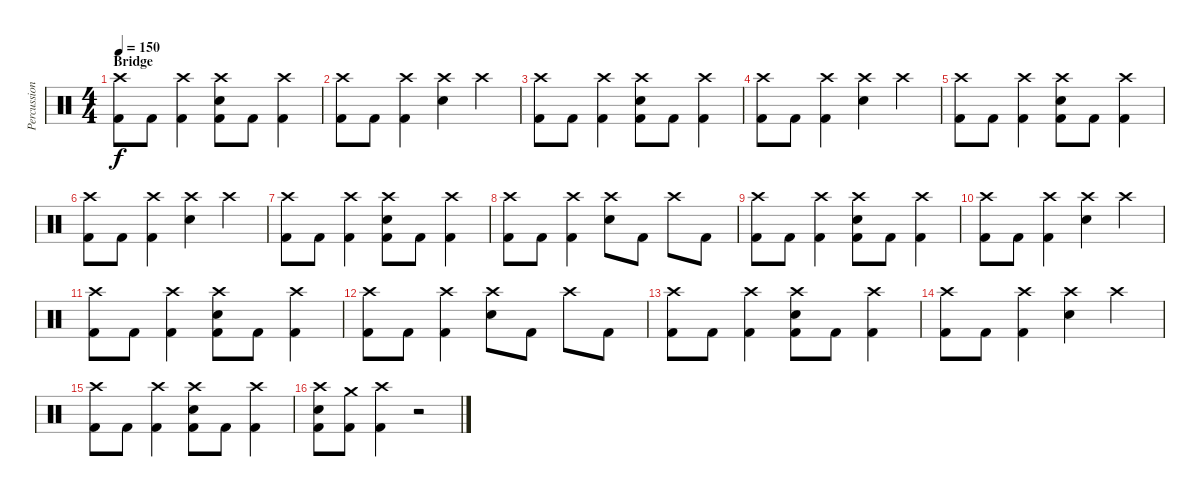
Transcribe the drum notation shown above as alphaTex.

\track ("Percussion" "Percussion") {instrument percussion}
\staff {score}
\articulation defaults
\ts (4 4)
\section ("" "Bridge")
\tempo 150
\clef neutral
\ks c
("Crash high (hit)" "Kick (hit) 2").8{dy f} "Kick (hit) 2".8 ("Crash high (hit)" "Kick (hit) 2").4 ("Crash high (hit)" "Electric Snare (hit)" "Kick (hit) 2").8 "Kick (hit) 2".8 ("Crash high (hit)" "Kick (hit) 2").4 |
("Crash high (hit)" "Kick (hit) 2").8 "Kick (hit) 2".8 ("Crash high (hit)" "Kick (hit) 2").4 ("Crash high (hit)" "Electric Snare (hit)").4 "Crash high (hit)".4 |
("Crash high (hit)" "Kick (hit) 2").8 "Kick (hit) 2".8 ("Crash high (hit)" "Kick (hit) 2").4 ("Crash high (hit)" "Electric Snare (hit)" "Kick (hit) 2").8 "Kick (hit) 2".8 ("Crash high (hit)" "Kick (hit) 2").4 |
("Crash high (hit)" "Kick (hit) 2").8 "Kick (hit) 2".8 ("Crash high (hit)" "Kick (hit) 2").4 ("Crash high (hit)" "Electric Snare (hit)").4 "Crash high (hit)".4 |
("Crash high (hit)" "Kick (hit) 2").8 "Kick (hit) 2".8 ("Crash high (hit)" "Kick (hit) 2").4 ("Crash high (hit)" "Electric Snare (hit)" "Kick (hit) 2").8 "Kick (hit) 2".8 ("Crash high (hit)" "Kick (hit) 2").4 |
("Crash high (hit)" "Kick (hit) 2").8 "Kick (hit) 2".8 ("Crash high (hit)" "Kick (hit) 2").4 ("Crash high (hit)" "Electric Snare (hit)").4 "Crash high (hit)".4 |
("Crash high (hit)" "Kick (hit) 2").8 "Kick (hit) 2".8 ("Crash high (hit)" "Kick (hit) 2").4 ("Crash high (hit)" "Electric Snare (hit)" "Kick (hit) 2").8 "Kick (hit) 2".8 ("Crash high (hit)" "Kick (hit) 2").4 |
("Crash high (hit)" "Kick (hit) 2").8 "Kick (hit) 2".8 ("Crash high (hit)" "Kick (hit) 2").4 ("Crash high (hit)" "Electric Snare (hit)").8 "Kick (hit) 2".8 "Crash high (hit)".8 "Kick (hit) 2".8 |
("Crash high (hit)" "Kick (hit) 2").8 "Kick (hit) 2".8 ("Crash high (hit)" "Kick (hit) 2").4 ("Crash high (hit)" "Electric Snare (hit)" "Kick (hit) 2").8 "Kick (hit) 2".8 ("Crash high (hit)" "Kick (hit) 2").4 |
("Crash high (hit)" "Kick (hit) 2").8 "Kick (hit) 2".8 ("Crash high (hit)" "Kick (hit) 2").4 ("Crash high (hit)" "Electric Snare (hit)").4 "Crash high (hit)".4 |
("Crash high (hit)" "Kick (hit) 2").8 "Kick (hit) 2".8 ("Crash high (hit)" "Kick (hit) 2").4 ("Crash high (hit)" "Electric Snare (hit)" "Kick (hit) 2").8 "Kick (hit) 2".8 ("Crash high (hit)" "Kick (hit) 2").4 |
("Crash high (hit)" "Kick (hit) 2").8 "Kick (hit) 2".8 ("Crash high (hit)" "Kick (hit) 2").4 ("Crash high (hit)" "Electric Snare (hit)").8 "Kick (hit) 2".8 "Crash high (hit)".8 "Kick (hit) 2".8 |
("Crash high (hit)" "Kick (hit) 2").8 "Kick (hit) 2".8 ("Crash high (hit)" "Kick (hit) 2").4 ("Crash high (hit)" "Electric Snare (hit)" "Kick (hit) 2").8 "Kick (hit) 2".8 ("Crash high (hit)" "Kick (hit) 2").4 |
("Crash high (hit)" "Kick (hit) 2").8 "Kick (hit) 2".8 ("Crash high (hit)" "Kick (hit) 2").4 ("Crash high (hit)" "Electric Snare (hit)").4 "Crash high (hit)".4 |
("Crash high (hit)" "Kick (hit) 2").8 "Kick (hit) 2".8 ("Crash high (hit)" "Kick (hit) 2").4 ("Crash high (hit)" "Electric Snare (hit)" "Kick (hit) 2").8 "Kick (hit) 2".8 ("Crash high (hit)" "Kick (hit) 2").4 |
("Crash high (hit)" "Electric Snare (hit)" "Kick (hit) 2").8 ("Crash medium (hit)" "Kick (hit) 2").8 ("Crash high (hit)" "Kick (hit) 2").4 r.2
